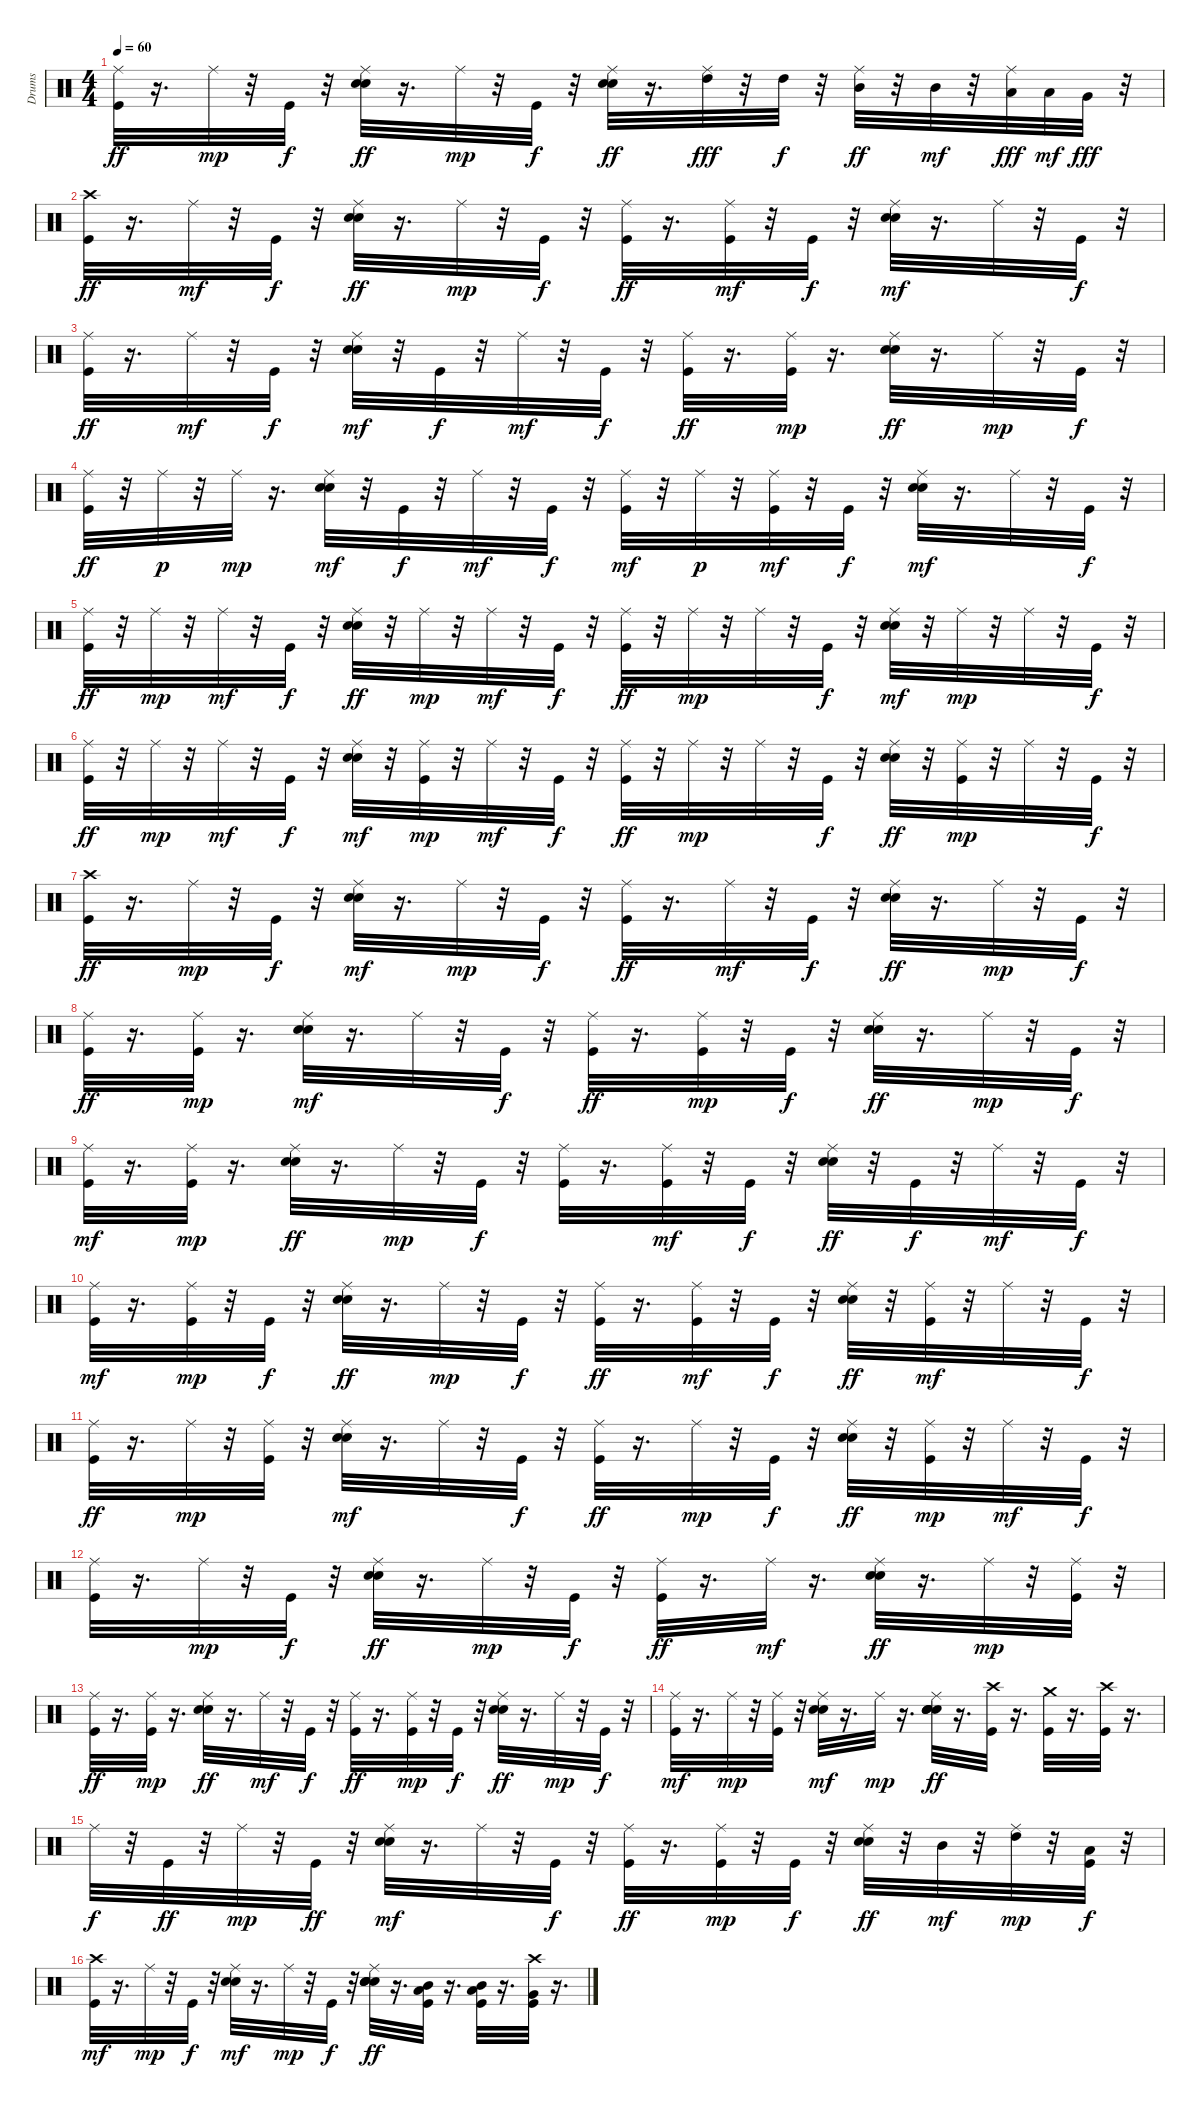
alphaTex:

\track ("Drums" "Drums") {instrument percussion}
\staff {score}
\articulation defaults
\ts (4 4)
\tempo 60
\clef neutral
\ks c
("Ride (middle)" "Kick (hit)").32{dy ff} r.16{d} "Ride (middle)".32{dy mp} r.32 "Kick (hit)".32{dy f} r.32 ("Snare (hit) 2" "Electric Snare (hit)" "Ride (middle)").32{dy ff} r.16{d} "Ride (middle)".32{dy mp} r.32 "Kick (hit)".32{dy f} r.32 ("Ride (middle)" "Snare (hit) 2" "Electric Snare (hit)").32{dy ff} r.16{d} ("Ride (middle)" "High Tom (hit)").32{dy fff} r.32 "High Tom (hit)".32{dy f} r.32 ("Mid Tom (hit)" "Ride (middle)").32{dy ff} r.32 "Mid Tom (hit)".32{dy mf} r.32 ("Ride (middle)" "Low Tom (hit)").32{dy fff} "Low Tom (hit)".32{dy mf} "Very Low Tom (hit)".32{dy fff} r.32 |
("Kick (hit)" "Crash high (hit)").32{dy ff} r.16{d} "Ride (middle)".32{dy mf} r.32 "Kick (hit)".32{dy f} r.32 ("Snare (hit) 2" "Electric Snare (hit)" "Ride (middle)").32{dy ff} r.16{d} "Ride (middle)".32{dy mp} r.32 "Kick (hit)".32{dy f} r.32 ("Ride (middle)" "Kick (hit)").32{dy ff} r.16{d} ("Kick (hit)" "Ride (middle)").32{dy mf} r.32 "Kick (hit)".32{dy f} r.32 ("Ride (middle)" "Electric Snare (hit)" "Snare (hit) 2").32{dy mf} r.16{d} "Ride (middle)".32 r.32 "Kick (hit)".32{dy f} r.32 |
("Ride (middle)" "Kick (hit)").32{dy ff} r.16{d} "Ride (middle)".32{dy mf} r.32 "Kick (hit)".32{dy f} r.32 ("Ride (middle)" "Electric Snare (hit)" "Snare (hit) 2").32{dy mf} r.32 "Kick (hit)".32{dy f} r.32 "Ride (middle)".32{dy mf} r.32 "Kick (hit)".32{dy f} r.32 ("Ride (middle)" "Kick (hit)").32{dy ff} r.16{d} ("Ride (middle)" "Kick (hit)").32{dy mp} r.16{d} ("Ride (middle)" "Snare (hit) 2" "Electric Snare (hit)").32{dy ff} r.16{d} "Ride (middle)".32{dy mp} r.32 "Kick (hit)".32{dy f} r.32 |
("Ride (middle)" "Kick (hit)").32{dy ff} r.32 "Ride (middle)".32{dy p} r.32 "Ride (middle)".32{dy mp} r.16{d} ("Ride (middle)" "Electric Snare (hit)" "Snare (hit) 2").32{dy mf} r.32 "Kick (hit)".32{dy f} r.32 "Ride (middle)".32{dy mf} r.32 "Kick (hit)".32{dy f} r.32 ("Ride (middle)" "Kick (hit)").32{dy mf} r.32 "Ride (middle)".32{dy p} r.32 ("Ride (middle)" "Kick (hit)").32{dy mf} r.32 "Kick (hit)".32{dy f} r.32 ("Ride (middle)" "Electric Snare (hit)" "Snare (hit) 2").32{dy mf} r.16{d} "Ride (middle)".32 r.32 "Kick (hit)".32{dy f} r.32 |
("Ride (middle)" "Kick (hit)").32{dy ff} r.32 "Ride (middle)".32{dy mp} r.32 "Ride (middle)".32{dy mf} r.32 "Kick (hit)".32{dy f} r.32 ("Snare (hit) 2" "Ride (middle)" "Electric Snare (hit)").32{dy ff} r.32 "Ride (middle)".32{dy mp} r.32 "Ride (middle)".32{dy mf} r.32 "Kick (hit)".32{dy f} r.32 ("Ride (middle)" "Kick (hit)").32{dy ff} r.32 "Ride (middle)".32{dy mp} r.32 "Ride (middle)".32 r.32 "Kick (hit)".32{dy f} r.32 ("Ride (middle)" "Electric Snare (hit)" "Snare (hit) 2").32{dy mf} r.32 "Ride (middle)".32{dy mp} r.32 "Ride (middle)".32 r.32 "Kick (hit)".32{dy f} r.32 |
("Ride (middle)" "Kick (hit)").32{dy ff} r.32 "Ride (middle)".32{dy mp} r.32 "Ride (middle)".32{dy mf} r.32 "Kick (hit)".32{dy f} r.32 ("Ride (middle)" "Electric Snare (hit)" "Snare (hit) 2").32{dy mf} r.32 ("Kick (hit)" "Ride (middle)").32{dy mp} r.32 "Ride (middle)".32{dy mf} r.32 "Kick (hit)".32{dy f} r.32 ("Ride (middle)" "Kick (hit)").32{dy ff} r.32 "Ride (middle)".32{dy mp} r.32 "Ride (middle)".32 r.32 "Kick (hit)".32{dy f} r.32 ("Ride (middle)" "Snare (hit) 2" "Electric Snare (hit)").32{dy ff} r.32 ("Ride (middle)" "Kick (hit)").32{dy mp} r.32 "Ride (middle)".32 r.32 "Kick (hit)".32{dy f} r.32 |
("Kick (hit)" "Crash high (hit)").32{dy ff} r.16{d} "Ride (middle)".32{dy mp} r.32 "Kick (hit)".32{dy f} r.32 ("Electric Snare (hit)" "Snare (hit) 2" "Ride (middle)").32{dy mf} r.16{d} "Ride (middle)".32{dy mp} r.32 "Kick (hit)".32{dy f} r.32 ("Ride (middle)" "Kick (hit)").32{dy ff} r.16{d} "Ride (middle)".32{dy mf} r.32 "Kick (hit)".32{dy f} r.32 ("Ride (middle)" "Snare (hit) 2" "Electric Snare (hit)").32{dy ff} r.16{d} "Ride (middle)".32{dy mp} r.32 "Kick (hit)".32{dy f} r.32 |
("Ride (middle)" "Kick (hit)").32{dy ff} r.16{d} ("Kick (hit)" "Ride (middle)").32{dy mp} r.16{d} ("Ride (middle)" "Electric Snare (hit)" "Snare (hit) 2").32{dy mf} r.16{d} "Ride (middle)".32 r.32 "Kick (hit)".32{dy f} r.32 ("Ride (middle)" "Kick (hit)").32{dy ff} r.16{d} ("Kick (hit)" "Ride (middle)").32{dy mp} r.32 "Kick (hit)".32{dy f} r.32 ("Snare (hit) 2" "Electric Snare (hit)" "Ride (middle)").32{dy ff} r.16{d} "Ride (middle)".32{dy mp} r.32 "Kick (hit)".32{dy f} r.32 |
("Kick (hit)" "Ride (middle)").32{dy mf} r.16{d} ("Kick (hit)" "Ride (middle)").32{dy mp} r.16{d} ("Snare (hit) 2" "Electric Snare (hit)" "Ride (middle)").32{dy ff} r.16{d} "Ride (middle)".32{dy mp} r.32 "Kick (hit)".32{dy f} r.32 ("Ride (middle)" "Kick (hit)").32 r.16{d} ("Ride (middle)" "Kick (hit)").32{dy mf} r.32 "Kick (hit)".32{dy f} r.32 ("Ride (middle)" "Electric Snare (hit)" "Snare (hit) 2").32{dy ff} r.32 "Kick (hit)".32{dy f} r.32 "Ride (middle)".32{dy mf} r.32 "Kick (hit)".32{dy f} r.32 |
("Kick (hit)" "Ride (middle)").32{dy mf} r.16{d} ("Kick (hit)" "Ride (middle)").32{dy mp} r.32 "Kick (hit)".32{dy f} r.32 ("Ride (middle)" "Snare (hit) 2" "Electric Snare (hit)").32{dy ff} r.16{d} "Ride (middle)".32{dy mp} r.32 "Kick (hit)".32{dy f} r.32 ("Ride (middle)" "Kick (hit)").32{dy ff} r.16{d} ("Ride (middle)" "Kick (hit)").32{dy mf} r.32 "Kick (hit)".32{dy f} r.32 ("Ride (middle)" "Snare (hit) 2" "Electric Snare (hit)").32{dy ff} r.32 ("Kick (hit)" "Ride (middle)").32{dy mf} r.32 "Ride (middle)".32 r.32 "Kick (hit)".32{dy f} r.32 |
("Kick (hit)" "Ride (middle)").32{dy ff} r.16{d} "Ride (middle)".32{dy mp} r.32 ("Kick (hit)" "Ride (middle)").32 r.32 ("Electric Snare (hit)" "Snare (hit) 2" "Ride (middle)").32{dy mf} r.16{d} "Ride (middle)".32 r.32 "Kick (hit)".32{dy f} r.32 ("Ride (middle)" "Kick (hit)").32{dy ff} r.16{d} "Ride (middle)".32{dy mp} r.32 "Kick (hit)".32{dy f} r.32 ("Ride (middle)" "Snare (hit) 2" "Electric Snare (hit)").32{dy ff} r.32 ("Kick (hit)" "Ride (middle)").32{dy mp} r.32 "Ride (middle)".32{dy mf} r.32 "Kick (hit)".32{dy f} r.32 |
("Ride (middle)" "Kick (hit)").32 r.16{d} "Ride (middle)".32{dy mp} r.32 "Kick (hit)".32{dy f} r.32 ("Snare (hit) 2" "Electric Snare (hit)" "Ride (middle)").32{dy ff} r.16{d} "Ride (middle)".32{dy mp} r.32 "Kick (hit)".32{dy f} r.32 ("Kick (hit)" "Ride (middle)").32{dy ff} r.16{d} "Ride (middle)".32{dy mf} r.16{d} ("Snare (hit) 2" "Ride (middle)" "Electric Snare (hit)").32{dy ff} r.16{d} "Ride (middle)".32{dy mp} r.32 ("Ride (middle)" "Kick (hit)").32 r.32 |
("Kick (hit)" "Ride (middle)").32{dy ff} r.16{d} ("Ride (middle)" "Kick (hit)").32{dy mp} r.16{d} ("Ride (middle)" "Snare (hit) 2" "Electric Snare (hit)").32{dy ff} r.16{d} "Ride (middle)".32{dy mf} r.32 "Kick (hit)".32{dy f} r.32 ("Ride (middle)" "Kick (hit)").32{dy ff} r.16{d} ("Kick (hit)" "Ride (middle)").32{dy mp} r.32 "Kick (hit)".32{dy f} r.32 ("Snare (hit) 2" "Ride (middle)" "Electric Snare (hit)").32{dy ff} r.16{d} "Ride (middle)".32{dy mp} r.32 "Kick (hit)".32{dy f} r.32 |
("Kick (hit)" "Ride (middle)").32{dy mf} r.16{d} "Ride (middle)".32{dy mp} r.32 ("Kick (hit)" "Ride (middle)").32 r.32 ("Electric Snare (hit)" "Ride (middle)" "Snare (hit) 2").32{dy mf} r.16{d} "Ride (middle)".32{dy mp} r.16{d} ("Snare (hit) 2" "Electric Snare (hit)" "Ride (middle)" "Snare (hit) 2" "Electric Snare (hit)").32{dy ff} r.16{d} ("Crash high (hit)" "Kick (hit)").32 r.16{d} ("Crash medium (hit)" "Kick (hit)").32 r.16{d} ("Crash high (hit)" "Kick (hit)").32 r.16{d} |
"Ride (middle)".32{dy f} r.32 "Kick (hit)".32{dy ff} r.32 "Ride (middle)".32{dy mp} r.32 "Kick (hit)".32{dy ff} r.32 ("Ride (middle)" "Electric Snare (hit)" "Snare (hit) 2").32{dy mf} r.16{d} "Ride (middle)".32 r.32 "Kick (hit)".32{dy f} r.32 ("Ride (middle)" "Kick (hit)").32{dy ff} r.16{d} ("Kick (hit)" "Ride (middle)").32{dy mp} r.32 "Kick (hit)".32{dy f} r.32 ("Snare (hit) 2" "Electric Snare (hit)" "Ride (middle)").32{dy ff} r.32 "Mid Tom (hit)".32{dy mf} r.32 ("High Tom (hit)" "Ride (middle)").32{dy mp} r.32 ("Kick (hit)" "Low Tom (hit)").32{dy f} r.32 |
("Kick (hit)" "Crash high (hit)").32{dy mf} r.16{d} "Ride (middle)".32{dy mp} r.32 "Kick (hit)".32{dy f} r.32 ("Ride (middle)" "Electric Snare (hit)" "Snare (hit) 2").32{dy mf} r.16{d} "Ride (middle)".32{dy mp} r.32 "Kick (hit)".32{dy f} r.32 ("Electric Snare (hit)" "Snare (hit) 2" "Ride (middle)" "Electric Snare (hit)" "Snare (hit) 2").32{dy ff} r.16{d} ("Low Tom (hit)" "Mid Tom (hit)" "Kick (hit)").32 r.16{d} ("Low Tom (hit)" "Mid Tom (hit)" "Kick (hit)").32 r.16{d} ("Very Low Tom (hit)" "Kick (hit)" "Crash high (hit)").32 r.16{d}
